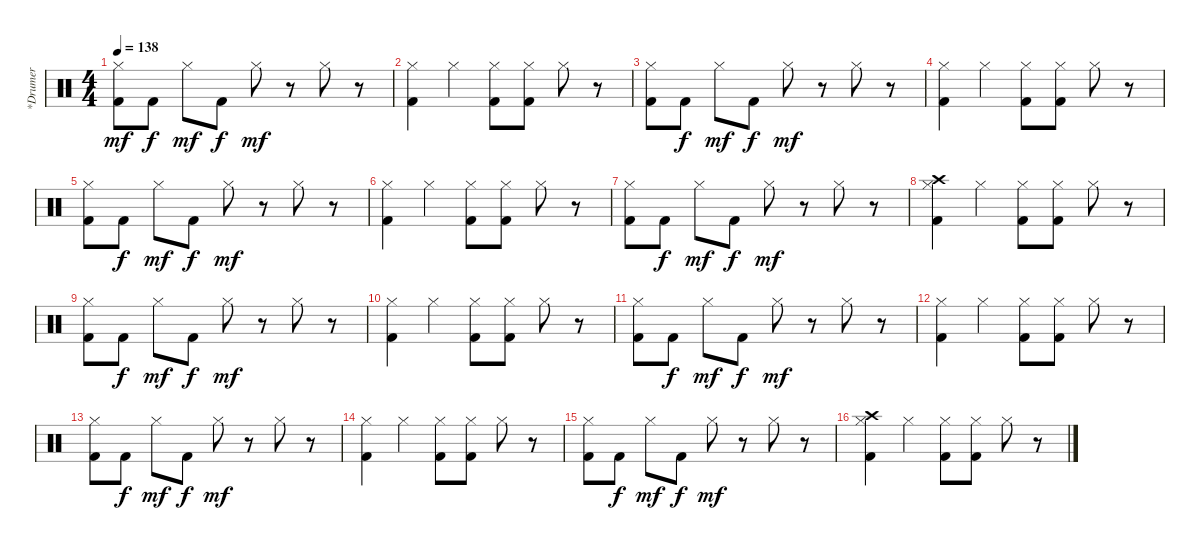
\track ("*Drumer" "*Drumer") {instrument percussion}
\staff {score}
\articulation defaults
\ts (4 4)
\tempo 138
\clef neutral
\ks c
("Hi-Hat (closed)" "Kick (hit) 2").8{dy mf} "Kick (hit) 2".8{dy f} "Hi-Hat (closed)".8{dy mf} "Kick (hit) 2".8{dy f} "Hi-Hat (closed)".8{dy mf} r.8 "Hi-Hat (closed)".8 r.8 |
("Hi-Hat (closed)" "Kick (hit) 2").4 "Hi-Hat (closed)".4 ("Hi-Hat (closed)" "Kick (hit) 2").8 ("Hi-Hat (closed)" "Kick (hit) 2").8 "Hi-Hat (closed)".8 r.8 |
("Hi-Hat (closed)" "Kick (hit) 2").8 "Kick (hit) 2".8{dy f} "Hi-Hat (closed)".8{dy mf} "Kick (hit) 2".8{dy f} "Hi-Hat (closed)".8{dy mf} r.8 "Hi-Hat (closed)".8 r.8 |
("Hi-Hat (closed)" "Kick (hit) 2").4 "Hi-Hat (closed)".4 ("Hi-Hat (closed)" "Kick (hit) 2").8 ("Hi-Hat (closed)" "Kick (hit) 2").8 "Hi-Hat (closed)".8 r.8 |
("Hi-Hat (closed)" "Kick (hit) 2").8 "Kick (hit) 2".8{dy f} "Hi-Hat (closed)".8{dy mf} "Kick (hit) 2".8{dy f} "Hi-Hat (closed)".8{dy mf} r.8 "Hi-Hat (closed)".8 r.8 |
("Hi-Hat (closed)" "Kick (hit) 2").4 "Hi-Hat (closed)".4 ("Hi-Hat (closed)" "Kick (hit) 2").8 ("Hi-Hat (closed)" "Kick (hit) 2").8 "Hi-Hat (closed)".8 r.8 |
("Hi-Hat (closed)" "Kick (hit) 2").8 "Kick (hit) 2".8{dy f} "Hi-Hat (closed)".8{dy mf} "Kick (hit) 2".8{dy f} "Hi-Hat (closed)".8{dy mf} r.8 "Hi-Hat (closed)".8 r.8 |
("Crash high (hit)" "Hi-Hat (closed)" "Kick (hit) 2").4 "Hi-Hat (closed)".4 ("Hi-Hat (closed)" "Kick (hit) 2").8 ("Hi-Hat (closed)" "Kick (hit) 2").8 "Hi-Hat (closed)".8 r.8 |
("Hi-Hat (closed)" "Kick (hit) 2").8 "Kick (hit) 2".8{dy f} "Hi-Hat (closed)".8{dy mf} "Kick (hit) 2".8{dy f} "Hi-Hat (closed)".8{dy mf} r.8 "Hi-Hat (closed)".8 r.8 |
("Hi-Hat (closed)" "Kick (hit) 2").4 "Hi-Hat (closed)".4 ("Hi-Hat (closed)" "Kick (hit) 2").8 ("Hi-Hat (closed)" "Kick (hit) 2").8 "Hi-Hat (closed)".8 r.8 |
("Hi-Hat (closed)" "Kick (hit) 2").8 "Kick (hit) 2".8{dy f} "Hi-Hat (closed)".8{dy mf} "Kick (hit) 2".8{dy f} "Hi-Hat (closed)".8{dy mf} r.8 "Hi-Hat (closed)".8 r.8 |
("Hi-Hat (closed)" "Kick (hit) 2").4 "Hi-Hat (closed)".4 ("Hi-Hat (closed)" "Kick (hit) 2").8 ("Hi-Hat (closed)" "Kick (hit) 2").8 "Hi-Hat (closed)".8 r.8 |
("Hi-Hat (closed)" "Kick (hit) 2").8 "Kick (hit) 2".8{dy f} "Hi-Hat (closed)".8{dy mf} "Kick (hit) 2".8{dy f} "Hi-Hat (closed)".8{dy mf} r.8 "Hi-Hat (closed)".8 r.8 |
("Hi-Hat (closed)" "Kick (hit) 2").4 "Hi-Hat (closed)".4 ("Hi-Hat (closed)" "Kick (hit) 2").8 ("Hi-Hat (closed)" "Kick (hit) 2").8 "Hi-Hat (closed)".8 r.8 |
("Hi-Hat (closed)" "Kick (hit) 2").8 "Kick (hit) 2".8{dy f} "Hi-Hat (closed)".8{dy mf} "Kick (hit) 2".8{dy f} "Hi-Hat (closed)".8{dy mf} r.8 "Hi-Hat (closed)".8 r.8 |
("Crash high (hit)" "Hi-Hat (closed)" "Kick (hit) 2").4 "Hi-Hat (closed)".4 ("Hi-Hat (closed)" "Kick (hit) 2").8 ("Hi-Hat (closed)" "Kick (hit) 2").8 "Hi-Hat (closed)".8 r.8
